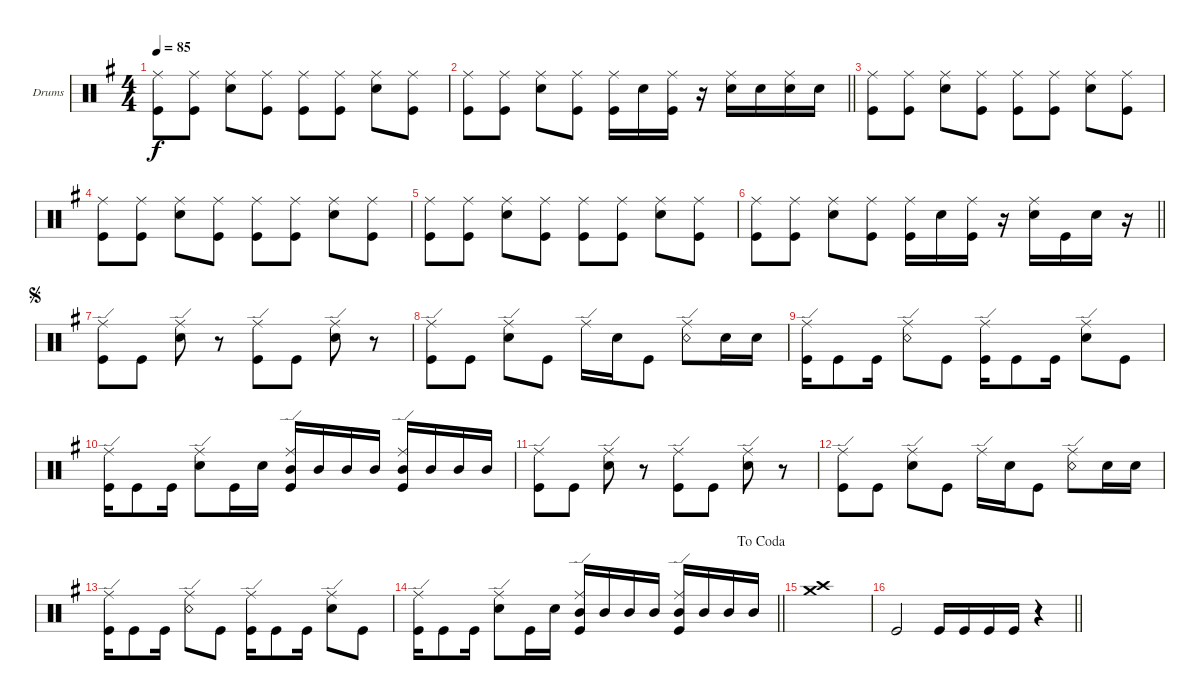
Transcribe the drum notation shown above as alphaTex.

\bracketExtendMode groupsimilarinstruments
\firstSystemTrackNameOrientation horizontal
\otherSystemsTrackNameOrientation horizontal
\track ("Drumkit" "Drums") {instrument percussion}
\staff {score}
\articulation defaults
\ts (4 4)
\tempo 85
\clef neutral
\scale
0.333333
\ks eminor
("Kick (hit)" "Ride (middle)").8{dy f} ("Kick (hit)" "Ride (middle)").8 ("Snare (hit) 2" "Ride (middle)").8 ("Kick (hit)" "Ride (middle)").8 ("Kick (hit)" "Ride (middle)").8 ("Kick (hit)" "Ride (middle)").8 ("Snare (hit) 2" "Ride (middle)").8 ("Kick (hit)" "Ride (middle)").8 |
\scale
0.333333
\barLineRight lightlight
("Kick (hit)" "Ride (middle)").8 ("Kick (hit)" "Ride (middle)").8 ("Snare (hit) 2" "Ride (middle)").8 ("Kick (hit)" "Ride (middle)").8 ("Kick (hit)" "Ride (middle)").16 "Snare (hit) 2".16 ("Kick (hit)" "Ride (middle)").16 r.16 ("Snare (hit) 2" "Ride (middle)").16 "Snare (hit) 2".16 ("Snare (hit) 2" "Ride (middle)").16 "Snare (hit) 2".16 |
\scale
0.333333 ("Kick (hit)" "Ride (middle)").8 ("Kick (hit)" "Ride (middle)").8 ("Snare (hit) 2" "Ride (middle)").8 ("Kick (hit)" "Ride (middle)").8 ("Kick (hit)" "Ride (middle)").8 ("Kick (hit)" "Ride (middle)").8 ("Snare (hit) 2" "Ride (middle)").8 ("Kick (hit)" "Ride (middle)").8 |
\scale
0.333333 ("Kick (hit)" "Ride (middle)").8 ("Kick (hit)" "Ride (middle)").8 ("Snare (hit) 2" "Ride (middle)").8 ("Kick (hit)" "Ride (middle)").8 ("Kick (hit)" "Ride (middle)").8 ("Kick (hit)" "Ride (middle)").8 ("Snare (hit) 2" "Ride (middle)").8 ("Kick (hit)" "Ride (middle)").8 |
\scale
0.333333 ("Kick (hit)" "Ride (middle)").8 ("Kick (hit)" "Ride (middle)").8 ("Snare (hit) 2" "Ride (middle)").8 ("Kick (hit)" "Ride (middle)").8 ("Kick (hit)" "Ride (middle)").8 ("Kick (hit)" "Ride (middle)").8 ("Snare (hit) 2" "Ride (middle)").8 ("Kick (hit)" "Ride (middle)").8 |
\scale
0.333333
\barLineRight lightlight
("Kick (hit)" "Ride (middle)").8 ("Kick (hit)" "Ride (middle)").8 ("Snare (hit) 2" "Ride (middle)").8 ("Kick (hit)" "Ride (middle)").8 ("Kick (hit)" "Ride (middle)").16 "Snare (hit) 2".16 ("Kick (hit)" "Ride (middle)").16 r.16 ("Snare (hit) 2" "Ride (middle)").16 "Kick (hit)".16 "Snare (hit) 2".16 r.16 |
\jump segno
\scale
0.333333 ("Kick (hit)" "Ride (edge)").8 "Kick (hit)".8 ("Snare (hit) 2" "Ride (edge)").8 r.8 ("Kick (hit)" "Ride (edge)").8 "Kick (hit)".8 ("Snare (hit) 2" "Ride (edge)").8 r.8 |
\scale
0.333333 ("Kick (hit)" "Ride (edge)").8 "Kick (hit)".8 ("Snare (hit) 2" "Ride (edge)").8 "Kick (hit)".8 "Ride (edge)".16 "Snare (hit) 2".16 "Kick (hit)".8 ("Snare (rim shot)" "Ride (edge)").8 "Snare (hit) 2".16 "Snare (hit) 2".16 |
\scale
0.333333 ("Kick (hit)" "Ride (edge)").16 "Kick (hit)".8 "Kick (hit)".16 ("Snare (rim shot)" "Ride (edge)").8 "Kick (hit)".8 ("Kick (hit)" "Ride (edge)").16 "Kick (hit)".8 "Kick (hit)".16 ("Snare (hit) 2" "Ride (edge)").8 "Kick (hit)".8 |
\scale
0.333333 ("Kick (hit)" "Ride (edge)").16 "Kick (hit)".8 "Kick (hit)".16 ("Snare (hit) 2" "Ride (edge)").8 "Kick (hit)".16 "Snare (hit) 2".16 ("Mid Tom (hit)" "Kick (hit)" "Ride (edge)").16 "Mid Tom (hit)".16 "Mid Tom (hit)".16 "Mid Tom (hit)".16 ("Mid Tom (hit)" "Kick (hit)" "Ride (edge)").16 "Mid Tom (hit)".16 "Mid Tom (hit)".16 "Mid Tom (hit)".16 |
\scale
0.333333 ("Kick (hit)" "Ride (edge)").8 "Kick (hit)".8 ("Snare (hit) 2" "Ride (edge)").8 r.8 ("Kick (hit)" "Ride (edge)").8 "Kick (hit)".8 ("Snare (hit) 2" "Ride (edge)").8 r.8 |
\scale
0.333333 ("Kick (hit)" "Ride (edge)").8 "Kick (hit)".8 ("Snare (hit) 2" "Ride (edge)").8 "Kick (hit)".8 "Ride (edge)".16 "Snare (hit) 2".16 "Kick (hit)".8 ("Snare (rim shot)" "Ride (edge)").8 "Snare (hit) 2".16 "Snare (hit) 2".16 |
\scale
0.333333 ("Kick (hit)" "Ride (edge)").16 "Kick (hit)".8 "Kick (hit)".16 ("Snare (rim shot)" "Ride (edge)").8 "Kick (hit)".8 ("Kick (hit)" "Ride (edge)").16 "Kick (hit)".8 "Kick (hit)".16 ("Snare (hit) 2" "Ride (edge)").8 "Kick (hit)".8 |
\jump dacoda
\scale
0.333333
\barLineRight lightlight
("Kick (hit)" "Ride (edge)").16 "Kick (hit)".8 "Kick (hit)".16 ("Snare (hit) 2" "Ride (edge)").8 "Kick (hit)".16 "Snare (hit) 2".16 ("Mid Tom (hit)" "Kick (hit)" "Ride (edge)").16 "Mid Tom (hit)".16 "Mid Tom (hit)".16 "Mid Tom (hit)".16 ("Mid Tom (hit)" "Kick (hit)" "Ride (edge)").16 "Mid Tom (hit)".16 "Mid Tom (hit)".16 "Mid Tom (hit)".16 |
\scale
0.333333 ("Crash medium (hit)" "Crash high (hit)").1 |
\scale
0.333333
\barLineRight lightlight "Kick (hit)".2 "Kick (hit)".16 "Kick (hit)".16 "Kick (hit)".16 "Kick (hit)".16
r.4
